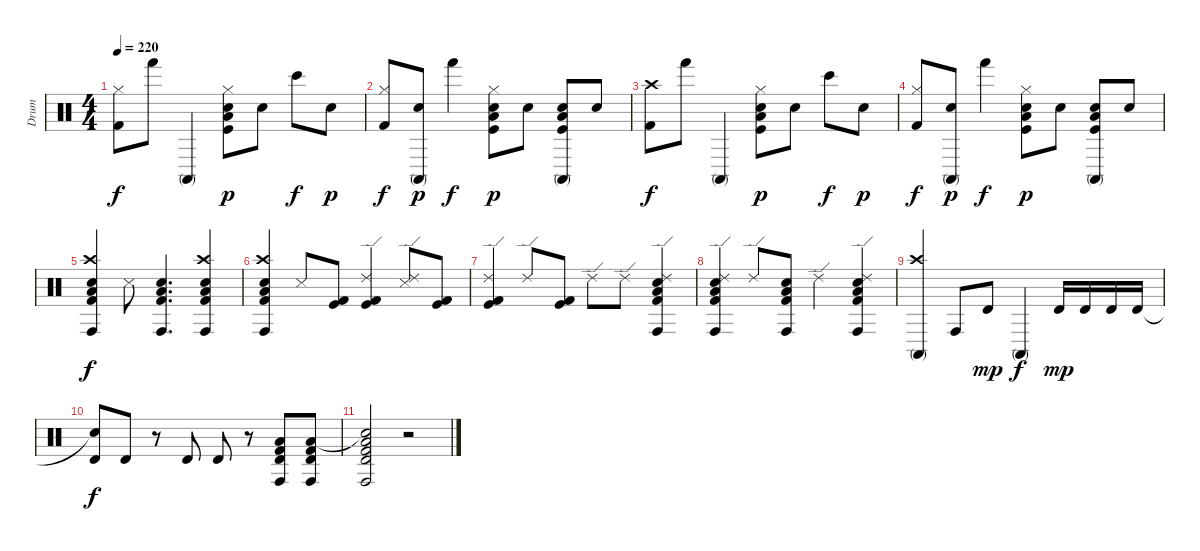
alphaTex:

\track ("Drum" "Drum") {instrument percussion}
\staff {score}
\articulation defaults
\ts (4 4)
\tempo 220
\clef neutral
\ks c
("Hi-Hat (closed)" "Kick (hit) 2").8{dy f} "Hand (hit)".8 "Conga high (mute)".4 ("Hi-Hat (closed)" "Low Floor Tom (hit)" "Electric Snare (hit)" "Kick (hit)").8{dy p} "Electric Snare (hit)".8 "Bongo High (hit)".8{dy f} "Electric Snare (hit)".8{dy p} |
("Hi-Hat (closed)" "Kick (hit) 2").8{dy f} ("Conga high (mute)" "Electric Snare (hit)").8{dy p} "Hand (hit)".4{dy f} ("Hi-Hat (closed)" "Low Floor Tom (hit)" "Electric Snare (hit)" "Kick (hit)").8{dy p} "Electric Snare (hit)".8 ("Low Floor Tom (hit)" "Conga high (mute)" "Electric Snare (hit)" "Kick (hit)").8 "Electric Snare (hit)".8 |
("Crash high (hit)" "Kick (hit) 2").8{dy f} "Hand (hit)".8 "Conga high (mute)".4 ("Hi-Hat (closed)" "Low Floor Tom (hit)" "Electric Snare (hit)" "Kick (hit)").8{dy p} "Electric Snare (hit)".8 "Bongo High (hit)".8{dy f} "Electric Snare (hit)".8{dy p} |
("Hi-Hat (closed)" "Kick (hit) 2").8{dy f} ("Conga high (mute)" "Electric Snare (hit)").8{dy p} "Hand (hit)".4{dy f} ("Hi-Hat (closed)" "Low Floor Tom (hit)" "Electric Snare (hit)" "Kick (hit)").8{dy p} "Electric Snare (hit)".8 ("Low Floor Tom (hit)" "Conga high (mute)" "Electric Snare (hit)" "Kick (hit)").8 "Electric Snare (hit)".8 |
("Crash high (hit)" "Low Floor Tom (hit)" "Conga high (hit)" "Electric Snare (hit)" "Kick (hit) 2").4{dy f} "Metronome (hit)".8 ("Low Floor Tom (hit)" "Conga high (hit)" "Electric Snare (hit)" "Kick (hit) 2").4{d} ("Crash high (hit)" "Low Floor Tom (hit)" "Conga high (hit)" "Electric Snare (hit)" "Kick (hit) 2").4 |
("Crash high (hit)" "Low Floor Tom (hit)" "Conga high (hit)" "Electric Snare (hit)" "Kick (hit) 2").4 "Metronome (hit)".8 ("Kick (hit) 2" "Kick (hit)").8 ("Ride (edge) 2" "Kick (hit) 2" "Kick (hit)").4 ("Ride (edge) 2" "Metronome (hit)").8 ("Kick (hit) 2" "Kick (hit)").8 |
("Ride (edge) 2" "Kick (hit) 2" "Kick (hit)").4 "Ride (edge) 2".8 ("Kick (hit) 2" "Kick (hit)").8 "Ride (edge) 2".8 "Ride (edge) 2".8 ("Ride (edge) 2" "Low Floor Tom (hit)" "Conga high (hit)" "Electric Snare (hit)" "Kick (hit) 2").4 |
("Ride (edge) 2" "Low Floor Tom (hit)" "Conga high (hit)" "Electric Snare (hit)" "Kick (hit) 2").4 "Ride (edge) 2".8 ("Low Floor Tom (hit)" "Conga high (hit)" "Electric Snare (hit)" "Kick (hit) 2").8 "Ride (edge) 2".4 ("Ride (edge) 2" "Low Floor Tom (hit)" "Conga high (hit)" "Electric Snare (hit)" "Kick (hit) 2").4 |
("Crash high (hit)" "Conga high (mute)").4 "Conga high (hit)".8 "Timbale high (hit)".8{dy mp} "Conga high (mute)".4{dy f} "Timbale high (hit)".16{dy mp} "Timbale high (hit)".16 "Timbale high (hit)".16 "Timbale high (hit)".16 |
("Snare (hit)"{t} "Timbale high (hit)").8{dy f} "Timbale high (hit)".8 r.8 "Timbale high (hit)".8 "Timbale high (hit)".8 r.8 ("Low Floor Tom (hit)" "Timbale high (hit)" "Conga high (hit)" "Kick (hit) 2").8 ("Low Floor Tom (hit)" "Timbale high (hit)" "Conga high (hit)" "Kick (hit) 2").8 |
("Snare (hit)"{t} "Low Floor Tom (hit)" "Timbale high (hit)" "Conga high (hit)" "Kick (hit) 2").2 r.2
